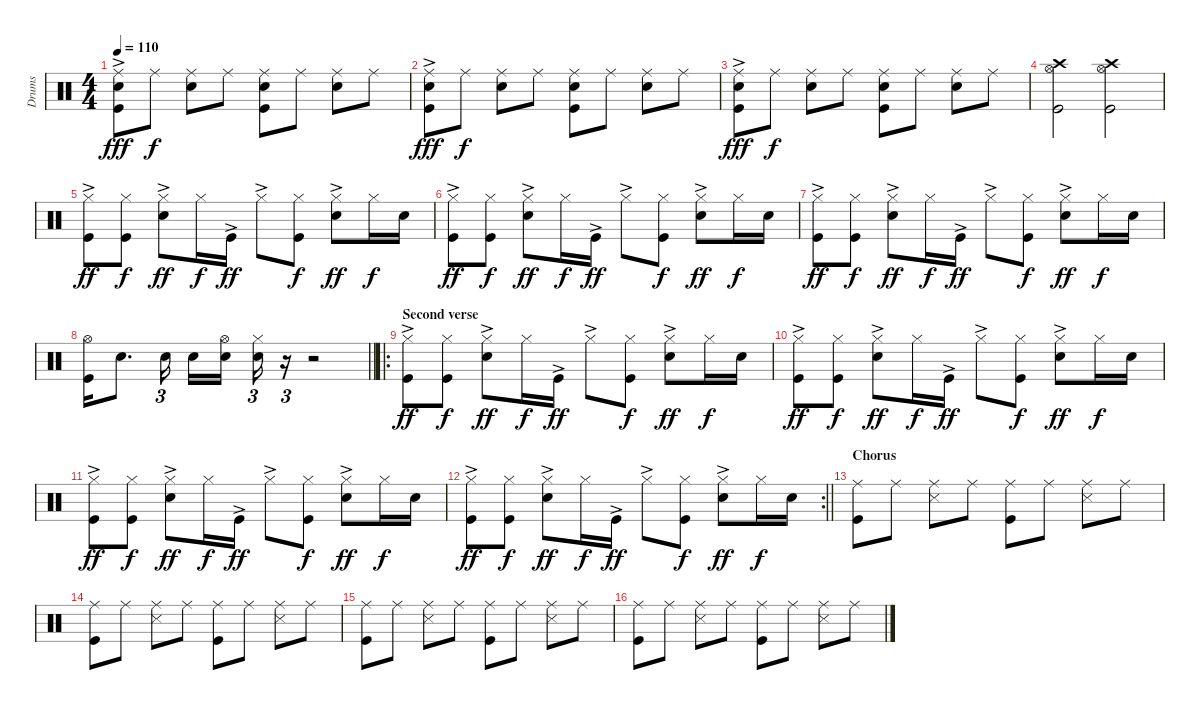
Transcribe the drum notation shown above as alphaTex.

\track ("Drums" "Drums") {instrument percussion}
\staff {score}
\articulation defaults
\ts (4 4)
\tempo 110
\clef neutral
\ks c
("Ride (middle)"{ac} "Snare (hit) 2" "Kick (hit)").8{dy fff} "Ride (middle)".8{dy f} ("Ride (middle)" "Snare (hit) 2").8 "Ride (middle)".8 ("Ride (middle)" "Snare (hit) 2" "Kick (hit)").8 "Ride (middle)".8 ("Ride (middle)" "Snare (hit) 2").8 "Ride (middle)".8 |
("Ride (middle)"{ac} "Snare (hit) 2" "Kick (hit)").8{dy fff} "Ride (middle)".8{dy f} ("Ride (middle)" "Snare (hit) 2").8 "Ride (middle)".8 ("Ride (middle)" "Snare (hit) 2" "Kick (hit)").8 "Ride (middle)".8 ("Ride (middle)" "Snare (hit) 2").8 "Ride (middle)".8 |
("Ride (middle)"{ac} "Snare (hit) 2" "Kick (hit)").8{dy fff} "Ride (middle)".8{dy f} ("Ride (middle)" "Snare (hit) 2").8 "Ride (middle)".8 ("Ride (middle)" "Snare (hit) 2" "Kick (hit)").8 "Ride (middle)".8 ("Ride (middle)" "Snare (hit) 2").8 "Ride (middle)".8 |
("Crash high (hit)" "Hi-Hat (open)" "Kick (hit)").2 ("Crash high (hit)" "Hi-Hat (open)" "Kick (hit)").2 |
("Hi-Hat (closed)"{ac} "Kick (hit)"{ac}).8{dy ff} ("Hi-Hat (closed)" "Kick (hit)").8{dy f} ("Hi-Hat (closed)"{ac} "Snare (hit) 2").8{dy ff} "Hi-Hat (closed)".16{dy f} "Kick (hit)"{ac}.16{dy ff} "Hi-Hat (closed)"{ac}.8 ("Hi-Hat (closed)" "Kick (hit)").8{dy f} ("Hi-Hat (closed)"{ac} "Snare (hit) 2").8{dy ff} "Hi-Hat (closed)".16{dy f} "Snare (hit) 2".16 |
("Hi-Hat (closed)"{ac} "Kick (hit)"{ac}).8{dy ff} ("Hi-Hat (closed)" "Kick (hit)").8{dy f} ("Hi-Hat (closed)"{ac} "Snare (hit) 2").8{dy ff} "Hi-Hat (closed)".16{dy f} "Kick (hit)"{ac}.16{dy ff} "Hi-Hat (closed)"{ac}.8 ("Hi-Hat (closed)" "Kick (hit)").8{dy f} ("Hi-Hat (closed)"{ac} "Snare (hit) 2").8{dy ff} "Hi-Hat (closed)".16{dy f} "Snare (hit) 2".16 |
("Hi-Hat (closed)"{ac} "Kick (hit)"{ac}).8{dy ff} ("Hi-Hat (closed)" "Kick (hit)").8{dy f} ("Hi-Hat (closed)"{ac} "Snare (hit) 2").8{dy ff} "Hi-Hat (closed)".16{dy f} "Kick (hit)"{ac}.16{dy ff} "Hi-Hat (closed)"{ac}.8 ("Hi-Hat (closed)" "Kick (hit)").8{dy f} ("Hi-Hat (closed)"{ac} "Snare (hit) 2").8{dy ff} "Hi-Hat (closed)".16{dy f} "Snare (hit) 2".16 |
\barLineRight lightlight
("Hi-Hat (open)" "Kick (hit)").16 "Snare (hit) 2".8{d} "Snare (hit) 2".16{tu (3 2)} "Snare (hit) 2".16 ("Hi-Hat (open)" "Snare (hit) 2").16 ("Hi-Hat (closed)" "Snare (hit) 2").16{tu (3 2)} r.16{tu (3 2)} r.2 |
\ro
\section ("" "Second verse")
("Hi-Hat (closed)"{ac} "Kick (hit)"{ac}).8{dy ff} ("Hi-Hat (closed)" "Kick (hit)").8{dy f} ("Hi-Hat (closed)"{ac} "Snare (hit) 2").8{dy ff} "Hi-Hat (closed)".16{dy f} "Kick (hit)"{ac}.16{dy ff} "Hi-Hat (closed)"{ac}.8 ("Hi-Hat (closed)" "Kick (hit)").8{dy f} ("Hi-Hat (closed)"{ac} "Snare (hit) 2").8{dy ff} "Hi-Hat (closed)".16{dy f} "Snare (hit) 2".16 |
("Hi-Hat (closed)"{ac} "Kick (hit)"{ac}).8{dy ff} ("Hi-Hat (closed)" "Kick (hit)").8{dy f} ("Hi-Hat (closed)"{ac} "Snare (hit) 2").8{dy ff} "Hi-Hat (closed)".16{dy f} "Kick (hit)"{ac}.16{dy ff} "Hi-Hat (closed)"{ac}.8 ("Hi-Hat (closed)" "Kick (hit)").8{dy f} ("Hi-Hat (closed)"{ac} "Snare (hit) 2").8{dy ff} "Hi-Hat (closed)".16{dy f} "Snare (hit) 2".16 |
("Hi-Hat (closed)"{ac} "Kick (hit)"{ac}).8{dy ff} ("Hi-Hat (closed)" "Kick (hit)").8{dy f} ("Hi-Hat (closed)"{ac} "Snare (hit) 2").8{dy ff} "Hi-Hat (closed)".16{dy f} "Kick (hit)"{ac}.16{dy ff} "Hi-Hat (closed)"{ac}.8 ("Hi-Hat (closed)" "Kick (hit)").8{dy f} ("Hi-Hat (closed)"{ac} "Snare (hit) 2").8{dy ff} "Hi-Hat (closed)".16{dy f} "Snare (hit) 2".16 |
\rc 2
\barLineRight lightlight
("Hi-Hat (closed)"{ac} "Kick (hit)"{ac}).8{dy ff} ("Hi-Hat (closed)" "Kick (hit)").8{dy f} ("Hi-Hat (closed)"{ac} "Snare (hit) 2").8{dy ff} "Hi-Hat (closed)".16{dy f} "Kick (hit)"{ac}.16{dy ff} "Hi-Hat (closed)"{ac}.8 ("Hi-Hat (closed)" "Kick (hit)").8{dy f} ("Hi-Hat (closed)"{ac} "Snare (hit) 2").8{dy ff} "Hi-Hat (closed)".16{dy f} "Snare (hit) 2".16 |
\section ("" "Chorus")
("Ride (middle)" "Kick (hit)").8 "Ride (middle)".8 ("Ride (middle)" "Snare (side stick) 3").8 "Ride (middle)".8 ("Ride (middle)" "Kick (hit)").8 "Ride (middle)".8 ("Ride (middle)" "Snare (side stick) 3").8 "Ride (middle)".8 |
("Ride (middle)" "Kick (hit)").8 "Ride (middle)".8 ("Ride (middle)" "Snare (side stick) 3").8 "Ride (middle)".8 ("Ride (middle)" "Kick (hit)").8 "Ride (middle)".8 ("Ride (middle)" "Snare (side stick) 3").8 "Ride (middle)".8 |
("Ride (middle)" "Kick (hit)").8 "Ride (middle)".8 ("Ride (middle)" "Snare (side stick) 3").8 "Ride (middle)".8 ("Ride (middle)" "Kick (hit)").8 "Ride (middle)".8 ("Ride (middle)" "Snare (side stick) 3").8 "Ride (middle)".8 |
("Ride (middle)" "Kick (hit)").8 "Ride (middle)".8 ("Ride (middle)" "Snare (side stick) 3").8 "Ride (middle)".8 ("Ride (middle)" "Kick (hit)").8 "Ride (middle)".8 ("Ride (middle)" "Snare (side stick) 3").8 "Ride (middle)".8
